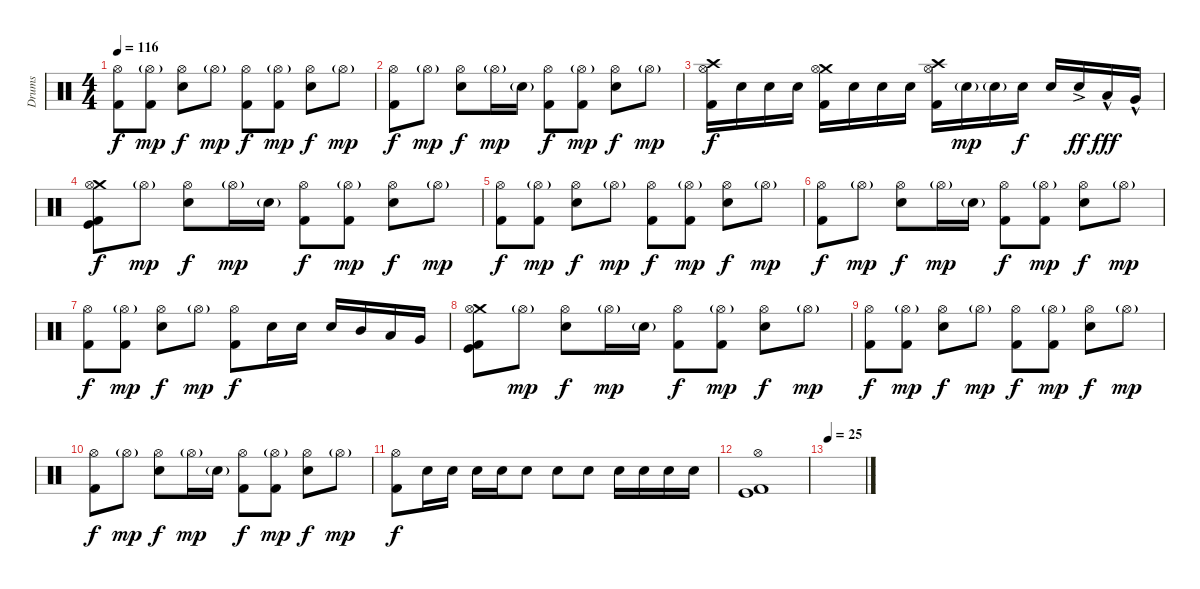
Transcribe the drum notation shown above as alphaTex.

\track ("Drums" "Drums") {instrument percussion}
\staff {score}
\articulation defaults
\ts (4 4)
\tempo 116
\clef neutral
\ks c
("Hi-Hat (open)" "Kick (hit) 2").8{dy f} ("Hi-Hat (open)"{g} "Kick (hit) 2").8{dy mp} ("Hi-Hat (open)" "Electric Snare (hit)").8{dy f} "Hi-Hat (open)"{g}.8{dy mp} ("Hi-Hat (open)" "Kick (hit) 2").8{dy f} ("Hi-Hat (open)"{g} "Kick (hit) 2").8{dy mp} ("Hi-Hat (open)" "Electric Snare (hit)").8{dy f} "Hi-Hat (open)"{g}.8{dy mp} |
("Hi-Hat (open)" "Kick (hit) 2").8{dy f} "Hi-Hat (open)"{g}.8{dy mp} ("Hi-Hat (open)" "Electric Snare (hit)").8{dy f} "Hi-Hat (open)"{g}.16{dy mp} "Electric Snare (hit)"{g}.16 ("Hi-Hat (open)" "Kick (hit) 2").8{dy f} ("Hi-Hat (open)"{g} "Kick (hit) 2").8{dy mp} ("Hi-Hat (open)" "Electric Snare (hit)").8{dy f} "Hi-Hat (open)"{g}.8{dy mp} |
("Crash high (hit)" "Hi-Hat (open)" "Kick (hit) 2").16{dy f} "Electric Snare (hit)".16 "Electric Snare (hit)".16 "Electric Snare (hit)".16 ("Crash medium (hit)" "Hi-Hat (open)" "Kick (hit) 2").16 "Electric Snare (hit)".16 "Electric Snare (hit)".16 "Electric Snare (hit)".16 ("Crash high (hit)" "Hi-Hat (open)" "Kick (hit) 2").16 "Electric Snare (hit)"{g}.16{dy mp} "Electric Snare (hit)"{g}.16 "Electric Snare (hit)".16{dy f} "Electric Snare (hit)".16 "Electric Snare (hit)"{ac}.16{dy ff} "Low Tom (hit)"{hac}.16{dy fff} "Very Low Tom (hit)"{hac}.16 |
("Crash medium (hit)" "Hi-Hat (open)" "Kick (hit)" "Kick (hit) 2").8{dy f} "Hi-Hat (open)"{g}.8{dy mp} ("Hi-Hat (open)" "Electric Snare (hit)").8{dy f} "Hi-Hat (open)"{g}.16{dy mp} "Electric Snare (hit)"{g}.16 ("Hi-Hat (open)" "Kick (hit) 2").8{dy f} ("Hi-Hat (open)"{g} "Kick (hit) 2").8{dy mp} ("Hi-Hat (open)" "Electric Snare (hit)").8{dy f} "Hi-Hat (open)"{g}.8{dy mp} |
("Hi-Hat (open)" "Kick (hit) 2").8{dy f} ("Hi-Hat (open)"{g} "Kick (hit) 2").8{dy mp} ("Hi-Hat (open)" "Electric Snare (hit)").8{dy f} "Hi-Hat (open)"{g}.8{dy mp} ("Hi-Hat (open)" "Kick (hit) 2").8{dy f} ("Hi-Hat (open)"{g} "Kick (hit) 2").8{dy mp} ("Hi-Hat (open)" "Electric Snare (hit)").8{dy f} "Hi-Hat (open)"{g}.8{dy mp} |
("Hi-Hat (open)" "Kick (hit) 2").8{dy f} "Hi-Hat (open)"{g}.8{dy mp} ("Hi-Hat (open)" "Electric Snare (hit)").8{dy f} "Hi-Hat (open)"{g}.16{dy mp} "Electric Snare (hit)"{g}.16 ("Hi-Hat (open)" "Kick (hit) 2").8{dy f} ("Hi-Hat (open)"{g} "Kick (hit) 2").8{dy mp} ("Hi-Hat (open)" "Electric Snare (hit)").8{dy f} "Hi-Hat (open)"{g}.8{dy mp} |
("Hi-Hat (open)" "Kick (hit) 2").8{dy f} ("Hi-Hat (open)"{g} "Kick (hit) 2").8{dy mp} ("Hi-Hat (open)" "Electric Snare (hit)").8{dy f} "Hi-Hat (open)"{g}.8{dy mp} ("Hi-Hat (open)" "Kick (hit) 2").8{dy f} "Electric Snare (hit)".16 "Electric Snare (hit)".16 "Electric Snare (hit)".16 "Mid Tom (hit)".16 "Low Tom (hit)".16 "Very Low Tom (hit)".16 |
("Crash medium (hit)" "Hi-Hat (open)" "Kick (hit)" "Kick (hit) 2").8 "Hi-Hat (open)"{g}.8{dy mp} ("Hi-Hat (open)" "Electric Snare (hit)").8{dy f} "Hi-Hat (open)"{g}.16{dy mp} "Electric Snare (hit)"{g}.16 ("Hi-Hat (open)" "Kick (hit) 2").8{dy f} ("Hi-Hat (open)"{g} "Kick (hit) 2").8{dy mp} ("Hi-Hat (open)" "Electric Snare (hit)").8{dy f} "Hi-Hat (open)"{g}.8{dy mp} |
("Hi-Hat (open)" "Kick (hit) 2").8{dy f} ("Hi-Hat (open)"{g} "Kick (hit) 2").8{dy mp} ("Hi-Hat (open)" "Electric Snare (hit)").8{dy f} "Hi-Hat (open)"{g}.8{dy mp} ("Hi-Hat (open)" "Kick (hit) 2").8{dy f} ("Hi-Hat (open)"{g} "Kick (hit) 2").8{dy mp} ("Hi-Hat (open)" "Electric Snare (hit)").8{dy f} "Hi-Hat (open)"{g}.8{dy mp} |
("Hi-Hat (open)" "Kick (hit) 2").8{dy f} "Hi-Hat (open)"{g}.8{dy mp} ("Hi-Hat (open)" "Electric Snare (hit)").8{dy f} "Hi-Hat (open)"{g}.16{dy mp} "Electric Snare (hit)"{g}.16 ("Hi-Hat (open)" "Kick (hit) 2").8{dy f} ("Hi-Hat (open)"{g} "Kick (hit) 2").8{dy mp} ("Hi-Hat (open)" "Electric Snare (hit)").8{dy f} "Hi-Hat (open)"{g}.8{dy mp} |
("Hi-Hat (open)" "Kick (hit) 2").8{dy f} "Electric Snare (hit)".16 "Electric Snare (hit)".16 "Electric Snare (hit)".16 "Electric Snare (hit)".16 "Electric Snare (hit)".8 "Electric Snare (hit)".8 "Electric Snare (hit)".8 "Electric Snare (hit)".16 "Electric Snare (hit)".16 "Electric Snare (hit)".16 "Electric Snare (hit)".16 |
("Hi-Hat (open)" "Kick (hit)" "Kick (hit) 2").1 |
\tempo 25
